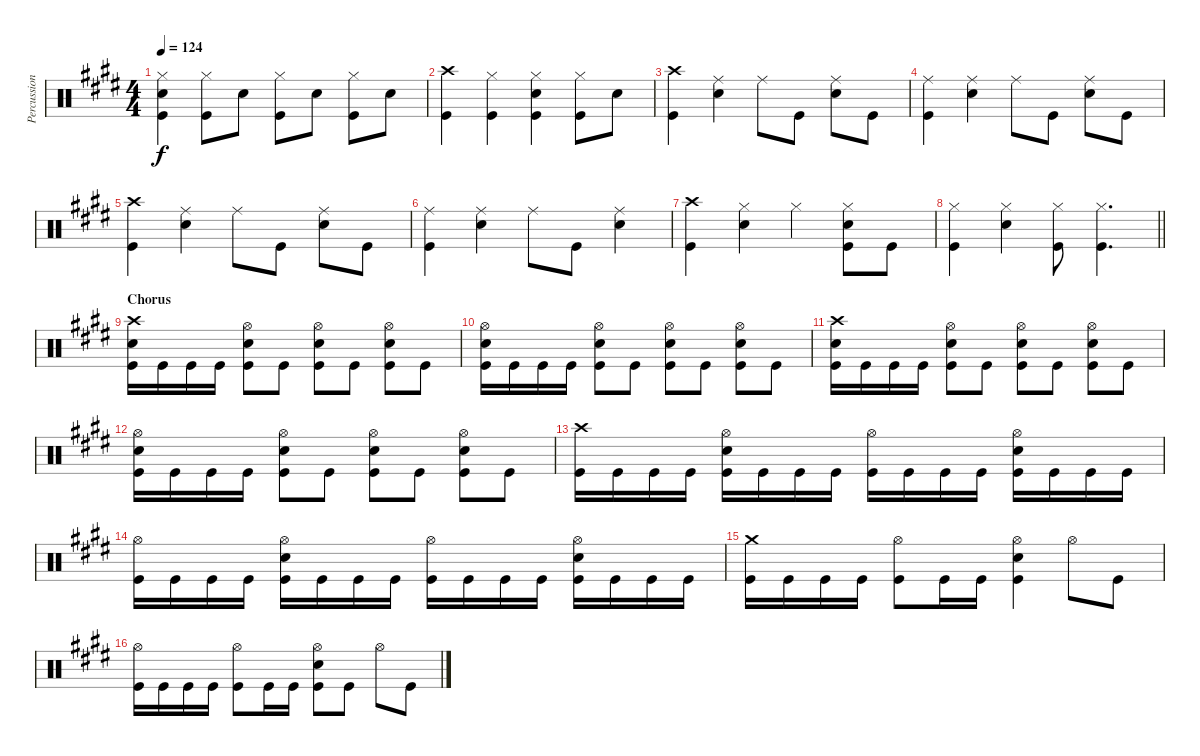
\track ("Percussion" "Percussion") {instrument percussion}
\staff {score}
\articulation defaults
\ts (4 4)
\tempo 124
\clef neutral
\ks e
("Hi-Hat (closed)" "Electric Snare (hit)" "Kick (hit)").4{dy f} ("Hi-Hat (closed)" "Kick (hit)").8 "Electric Snare (hit)".8 ("Hi-Hat (closed)" "Kick (hit)").8 "Electric Snare (hit)".8 ("Hi-Hat (closed)" "Kick (hit)").8 "Electric Snare (hit)".8 |
("Crash high (hit)" "Kick (hit)").4 ("Hi-Hat (closed)" "Kick (hit)").4 ("Hi-Hat (closed)" "Electric Snare (hit)" "Kick (hit)").4 ("Hi-Hat (closed)" "Kick (hit)").8 "Electric Snare (hit)".8 |
("Crash high (hit)" "Kick (hit)").4 ("Ride (middle)" "Electric Snare (hit)").4 "Ride (middle)".8 "Kick (hit)".8 ("Ride (middle)" "Electric Snare (hit)").8 "Kick (hit)".8 |
("Ride (middle)" "Kick (hit)").4 ("Ride (middle)" "Electric Snare (hit)").4 "Ride (middle)".8 "Kick (hit)".8 ("Ride (middle)" "Electric Snare (hit)").8 "Kick (hit)".8 |
("Crash high (hit)" "Kick (hit)").4 ("Ride (middle)" "Electric Snare (hit)").4 "Ride (middle)".8 "Kick (hit)".8 ("Ride (middle)" "Electric Snare (hit)").8 "Kick (hit)".8 |
("Ride (middle)" "Kick (hit)").4 ("Ride (middle)" "Electric Snare (hit)").4 "Ride (middle)".8 "Kick (hit)".8 ("Ride (middle)" "Electric Snare (hit)").4 |
("Crash high (hit)" "Kick (hit)").4 ("Hi-Hat (closed)" "Electric Snare (hit)").4 "Hi-Hat (closed)".4 ("Hi-Hat (closed)" "Electric Snare (hit)" "Kick (hit)").8 "Kick (hit)".8 |
\barLineRight lightlight
("Hi-Hat (closed)" "Kick (hit)").4 ("Hi-Hat (closed)" "Electric Snare (hit)").4 ("Hi-Hat (closed)" "Kick (hit)").8 ("Hi-Hat (closed)" "Kick (hit)").4{d} |
\section ("" "Chorus")
("Crash high (hit)" "Electric Snare (hit)" "Kick (hit)").16 "Kick (hit)".16 "Kick (hit)".16 "Kick (hit)".16 ("Hi-Hat (open)" "Electric Snare (hit)" "Kick (hit)").8 "Kick (hit)".8 ("Hi-Hat (open)" "Electric Snare (hit)" "Kick (hit)").8 "Kick (hit)".8 ("Hi-Hat (open)" "Electric Snare (hit)" "Kick (hit)").8 "Kick (hit)".8 |
("Hi-Hat (open)" "Electric Snare (hit)" "Kick (hit)").16 "Kick (hit)".16 "Kick (hit)".16 "Kick (hit)".16 ("Hi-Hat (open)" "Electric Snare (hit)" "Kick (hit)").8 "Kick (hit)".8 ("Hi-Hat (open)" "Electric Snare (hit)" "Kick (hit)").8 "Kick (hit)".8 ("Hi-Hat (open)" "Electric Snare (hit)" "Kick (hit)").8 "Kick (hit)".8 |
("Crash high (hit)" "Electric Snare (hit)" "Kick (hit)").16 "Kick (hit)".16 "Kick (hit)".16 "Kick (hit)".16 ("Hi-Hat (open)" "Electric Snare (hit)" "Kick (hit)").8 "Kick (hit)".8 ("Hi-Hat (open)" "Electric Snare (hit)" "Kick (hit)").8 "Kick (hit)".8 ("Hi-Hat (open)" "Electric Snare (hit)" "Kick (hit)").8 "Kick (hit)".8 |
("Hi-Hat (open)" "Electric Snare (hit)" "Kick (hit)").16 "Kick (hit)".16 "Kick (hit)".16 "Kick (hit)".16 ("Hi-Hat (open)" "Electric Snare (hit)" "Kick (hit)").8 "Kick (hit)".8 ("Hi-Hat (open)" "Electric Snare (hit)" "Kick (hit)").8 "Kick (hit)".8 ("Hi-Hat (open)" "Electric Snare (hit)" "Kick (hit)").8 "Kick (hit)".8 |
("Crash high (hit)" "Kick (hit)").16 "Kick (hit)".16 "Kick (hit)".16 "Kick (hit)".16 ("Hi-Hat (open)" "Electric Snare (hit)" "Kick (hit)").16 "Kick (hit)".16 "Kick (hit)".16 "Kick (hit)".16 ("Hi-Hat (open)" "Kick (hit)").16 "Kick (hit)".16 "Kick (hit)".16 "Kick (hit)".16 ("Hi-Hat (open)" "Electric Snare (hit)" "Kick (hit)").16 "Kick (hit)".16 "Kick (hit)".16 "Kick (hit)".16 |
("Hi-Hat (open)" "Kick (hit)").16 "Kick (hit)".16 "Kick (hit)".16 "Kick (hit)".16 ("Hi-Hat (open)" "Electric Snare (hit)" "Kick (hit)").16 "Kick (hit)".16 "Kick (hit)".16 "Kick (hit)".16 ("Hi-Hat (open)" "Kick (hit)").16 "Kick (hit)".16 "Kick (hit)".16 "Kick (hit)".16 ("Hi-Hat (open)" "Electric Snare (hit)" "Kick (hit)").16 "Kick (hit)".16 "Kick (hit)".16 "Kick (hit)".16 |
("Crash medium (hit)" "Kick (hit)").16 "Kick (hit)".16 "Kick (hit)".16 "Kick (hit)".16 ("Hi-Hat (open)" "Kick (hit)").8 "Kick (hit)".16 "Kick (hit)".16 ("Hi-Hat (open)" "Electric Snare (hit)" "Kick (hit)").4 "Hi-Hat (open)".8 "Kick (hit)".8 |
("Hi-Hat (open)" "Kick (hit)").16 "Kick (hit)".16 "Kick (hit)".16 "Kick (hit)".16 ("Hi-Hat (open)" "Kick (hit)").8 "Kick (hit)".16 "Kick (hit)".16 ("Hi-Hat (open)" "Electric Snare (hit)" "Kick (hit)").8 "Kick (hit)".8 "Hi-Hat (open)".8 "Kick (hit)".8
